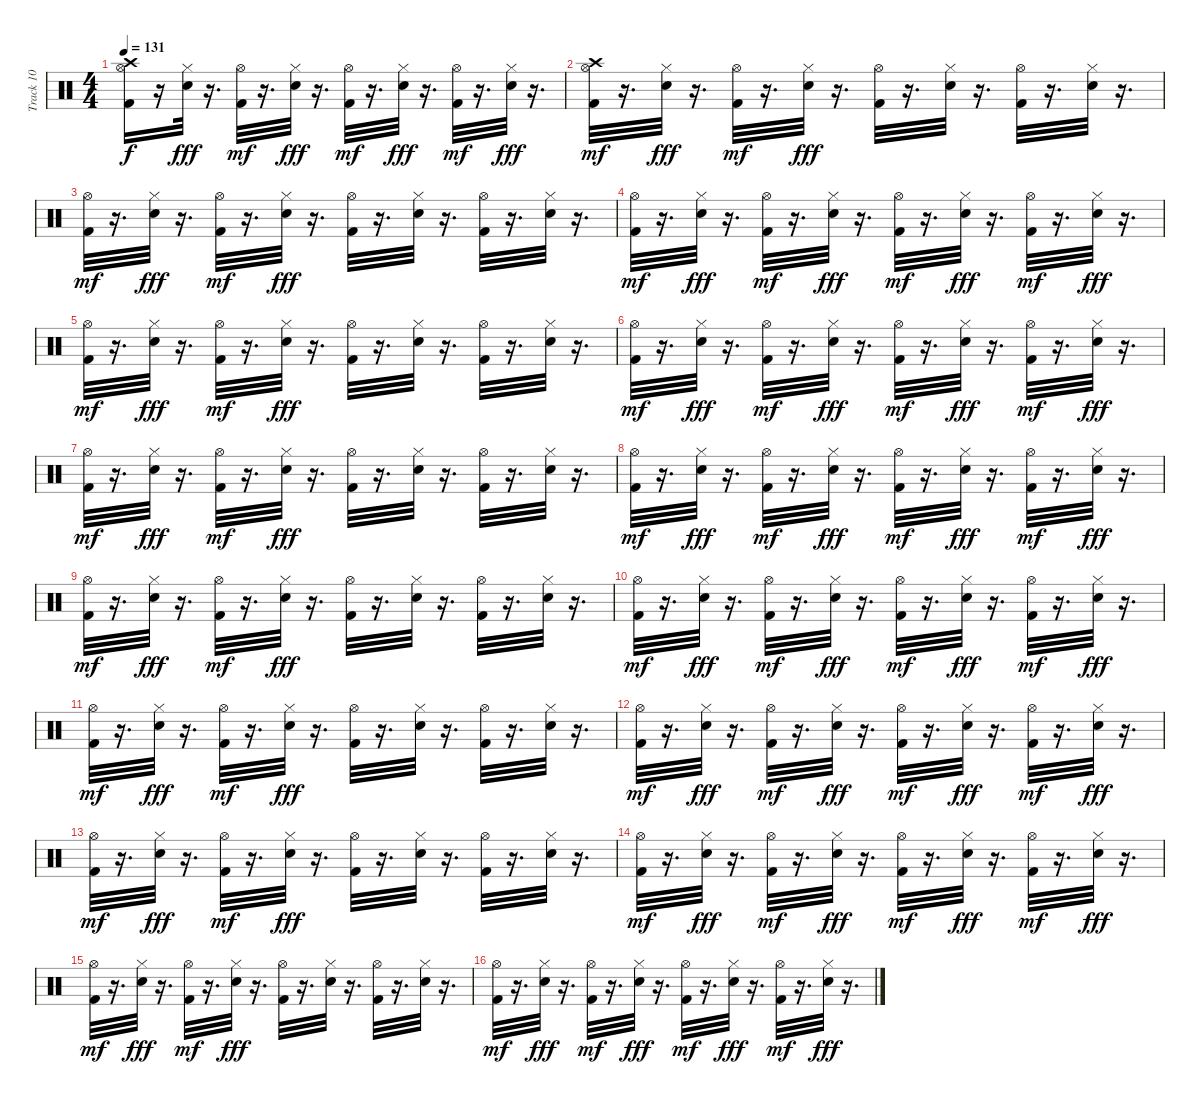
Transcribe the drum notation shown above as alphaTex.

\track ("Track 10" "Track 10") {instrument percussion}
\staff {score}
\articulation defaults
\ts (4 4)
\tempo 131
\clef neutral
\ks c
("Crash high (hit)" "Kick (hit) 2" "Hi-Hat (open)").16{dy f} r.16 ("Snare (hit) 2" "Hi-Hat (closed)").32{dy fff} r.16{d} ("Kick (hit) 2" "Hi-Hat (open)").32{dy mf} r.16{d} ("Snare (hit) 2" "Hi-Hat (closed)").32{dy fff} r.16{d} ("Kick (hit) 2" "Hi-Hat (open)").32{dy mf} r.16{d} ("Snare (hit) 2" "Hi-Hat (closed)").32{dy fff} r.16{d} ("Kick (hit) 2" "Hi-Hat (open)").32{dy mf} r.16{d} ("Snare (hit) 2" "Hi-Hat (closed)").32{dy fff} r.16{d} |
("Crash high (hit)" "Kick (hit) 2" "Hi-Hat (open)").32{dy mf} r.16{d} ("Snare (hit) 2" "Hi-Hat (closed)").32{dy fff} r.16{d} ("Kick (hit) 2" "Hi-Hat (open)").32{dy mf} r.16{d} ("Snare (hit) 2" "Hi-Hat (closed)").32{dy fff} r.16{d} ("Kick (hit) 2" "Hi-Hat (open)").32 r.16{d} ("Snare (hit) 2" "Hi-Hat (closed)").32 r.16{d} ("Kick (hit) 2" "Hi-Hat (open)").32 r.16{d} ("Snare (hit) 2" "Hi-Hat (closed)").32 r.16{d} |
("Kick (hit) 2" "Hi-Hat (open)").32{dy mf} r.16{d} ("Snare (hit) 2" "Hi-Hat (closed)").32{dy fff} r.16{d} ("Kick (hit) 2" "Hi-Hat (open)").32{dy mf} r.16{d} ("Snare (hit) 2" "Hi-Hat (closed)").32{dy fff} r.16{d} ("Kick (hit) 2" "Hi-Hat (open)").32 r.16{d} ("Snare (hit) 2" "Hi-Hat (closed)").32 r.16{d} ("Kick (hit) 2" "Hi-Hat (open)").32 r.16{d} ("Snare (hit) 2" "Hi-Hat (closed)").32 r.16{d} |
("Kick (hit) 2" "Hi-Hat (open)").32{dy mf} r.16{d} ("Snare (hit) 2" "Hi-Hat (closed)").32{dy fff} r.16{d} ("Kick (hit) 2" "Hi-Hat (open)").32{dy mf} r.16{d} ("Snare (hit) 2" "Hi-Hat (closed)").32{dy fff} r.16{d} ("Kick (hit) 2" "Hi-Hat (open)").32{dy mf} r.16{d} ("Snare (hit) 2" "Hi-Hat (closed)").32{dy fff} r.16{d} ("Kick (hit) 2" "Hi-Hat (open)").32{dy mf} r.16{d} ("Snare (hit) 2" "Hi-Hat (closed)").32{dy fff} r.16{d} |
("Kick (hit) 2" "Hi-Hat (open)").32{dy mf} r.16{d} ("Snare (hit) 2" "Hi-Hat (closed)").32{dy fff} r.16{d} ("Kick (hit) 2" "Hi-Hat (open)").32{dy mf} r.16{d} ("Snare (hit) 2" "Hi-Hat (closed)").32{dy fff} r.16{d} ("Kick (hit) 2" "Hi-Hat (open)").32 r.16{d} ("Snare (hit) 2" "Hi-Hat (closed)").32 r.16{d} ("Kick (hit) 2" "Hi-Hat (open)").32 r.16{d} ("Snare (hit) 2" "Hi-Hat (closed)").32 r.16{d} |
("Kick (hit) 2" "Hi-Hat (open)").32{dy mf} r.16{d} ("Snare (hit) 2" "Hi-Hat (closed)").32{dy fff} r.16{d} ("Kick (hit) 2" "Hi-Hat (open)").32{dy mf} r.16{d} ("Snare (hit) 2" "Hi-Hat (closed)").32{dy fff} r.16{d} ("Kick (hit) 2" "Hi-Hat (open)").32{dy mf} r.16{d} ("Snare (hit) 2" "Hi-Hat (closed)").32{dy fff} r.16{d} ("Kick (hit) 2" "Hi-Hat (open)").32{dy mf} r.16{d} ("Snare (hit) 2" "Hi-Hat (closed)").32{dy fff} r.16{d} |
("Kick (hit) 2" "Hi-Hat (open)").32{dy mf} r.16{d} ("Snare (hit) 2" "Hi-Hat (closed)").32{dy fff} r.16{d} ("Kick (hit) 2" "Hi-Hat (open)").32{dy mf} r.16{d} ("Snare (hit) 2" "Hi-Hat (closed)").32{dy fff} r.16{d} ("Kick (hit) 2" "Hi-Hat (open)").32 r.16{d} ("Snare (hit) 2" "Hi-Hat (closed)").32 r.16{d} ("Kick (hit) 2" "Hi-Hat (open)").32 r.16{d} ("Snare (hit) 2" "Hi-Hat (closed)").32 r.16{d} |
("Kick (hit) 2" "Hi-Hat (open)").32{dy mf} r.16{d} ("Snare (hit) 2" "Hi-Hat (closed)").32{dy fff} r.16{d} ("Kick (hit) 2" "Hi-Hat (open)").32{dy mf} r.16{d} ("Snare (hit) 2" "Hi-Hat (closed)").32{dy fff} r.16{d} ("Kick (hit) 2" "Hi-Hat (open)").32{dy mf} r.16{d} ("Snare (hit) 2" "Hi-Hat (closed)").32{dy fff} r.16{d} ("Kick (hit) 2" "Hi-Hat (open)").32{dy mf} r.16{d} ("Snare (hit) 2" "Hi-Hat (closed)").32{dy fff} r.16{d} |
("Kick (hit) 2" "Hi-Hat (open)").32{dy mf} r.16{d} ("Snare (hit) 2" "Hi-Hat (closed)").32{dy fff} r.16{d} ("Kick (hit) 2" "Hi-Hat (open)").32{dy mf} r.16{d} ("Snare (hit) 2" "Hi-Hat (closed)").32{dy fff} r.16{d} ("Kick (hit) 2" "Hi-Hat (open)").32 r.16{d} ("Snare (hit) 2" "Hi-Hat (closed)").32 r.16{d} ("Kick (hit) 2" "Hi-Hat (open)").32 r.16{d} ("Snare (hit) 2" "Hi-Hat (closed)").32 r.16{d} |
("Kick (hit) 2" "Hi-Hat (open)").32{dy mf} r.16{d} ("Snare (hit) 2" "Hi-Hat (closed)").32{dy fff} r.16{d} ("Kick (hit) 2" "Hi-Hat (open)").32{dy mf} r.16{d} ("Snare (hit) 2" "Hi-Hat (closed)").32{dy fff} r.16{d} ("Kick (hit) 2" "Hi-Hat (open)").32{dy mf} r.16{d} ("Snare (hit) 2" "Hi-Hat (closed)").32{dy fff} r.16{d} ("Kick (hit) 2" "Hi-Hat (open)").32{dy mf} r.16{d} ("Snare (hit) 2" "Hi-Hat (closed)").32{dy fff} r.16{d} |
("Kick (hit) 2" "Hi-Hat (open)").32{dy mf} r.16{d} ("Snare (hit) 2" "Hi-Hat (closed)").32{dy fff} r.16{d} ("Kick (hit) 2" "Hi-Hat (open)").32{dy mf} r.16{d} ("Snare (hit) 2" "Hi-Hat (closed)").32{dy fff} r.16{d} ("Kick (hit) 2" "Hi-Hat (open)").32 r.16{d} ("Snare (hit) 2" "Hi-Hat (closed)").32 r.16{d} ("Kick (hit) 2" "Hi-Hat (open)").32 r.16{d} ("Snare (hit) 2" "Hi-Hat (closed)").32 r.16{d} |
("Kick (hit) 2" "Hi-Hat (open)").32{dy mf} r.16{d} ("Snare (hit) 2" "Hi-Hat (closed)").32{dy fff} r.16{d} ("Kick (hit) 2" "Hi-Hat (open)").32{dy mf} r.16{d} ("Snare (hit) 2" "Hi-Hat (closed)").32{dy fff} r.16{d} ("Kick (hit) 2" "Hi-Hat (open)").32{dy mf} r.16{d} ("Snare (hit) 2" "Hi-Hat (closed)").32{dy fff} r.16{d} ("Kick (hit) 2" "Hi-Hat (open)").32{dy mf} r.16{d} ("Snare (hit) 2" "Hi-Hat (closed)").32{dy fff} r.16{d} |
("Kick (hit) 2" "Hi-Hat (open)").32{dy mf} r.16{d} ("Snare (hit) 2" "Hi-Hat (closed)").32{dy fff} r.16{d} ("Kick (hit) 2" "Hi-Hat (open)").32{dy mf} r.16{d} ("Snare (hit) 2" "Hi-Hat (closed)").32{dy fff} r.16{d} ("Kick (hit) 2" "Hi-Hat (open)").32 r.16{d} ("Snare (hit) 2" "Hi-Hat (closed)").32 r.16{d} ("Kick (hit) 2" "Hi-Hat (open)").32 r.16{d} ("Snare (hit) 2" "Hi-Hat (closed)").32 r.16{d} |
("Kick (hit) 2" "Hi-Hat (open)").32{dy mf} r.16{d} ("Snare (hit) 2" "Hi-Hat (closed)").32{dy fff} r.16{d} ("Kick (hit) 2" "Hi-Hat (open)").32{dy mf} r.16{d} ("Snare (hit) 2" "Hi-Hat (closed)").32{dy fff} r.16{d} ("Kick (hit) 2" "Hi-Hat (open)").32{dy mf} r.16{d} ("Snare (hit) 2" "Hi-Hat (closed)").32{dy fff} r.16{d} ("Kick (hit) 2" "Hi-Hat (open)").32{dy mf} r.16{d} ("Snare (hit) 2" "Hi-Hat (closed)").32{dy fff} r.16{d} |
("Kick (hit) 2" "Hi-Hat (open)").32{dy mf} r.16{d} ("Snare (hit) 2" "Hi-Hat (closed)").32{dy fff} r.16{d} ("Kick (hit) 2" "Hi-Hat (open)").32{dy mf} r.16{d} ("Snare (hit) 2" "Hi-Hat (closed)").32{dy fff} r.16{d} ("Kick (hit) 2" "Hi-Hat (open)").32 r.16{d} ("Snare (hit) 2" "Hi-Hat (closed)").32 r.16{d} ("Kick (hit) 2" "Hi-Hat (open)").32 r.16{d} ("Snare (hit) 2" "Hi-Hat (closed)").32 r.16{d} |
("Kick (hit) 2" "Hi-Hat (open)").32{dy mf} r.16{d} ("Snare (hit) 2" "Hi-Hat (closed)").32{dy fff} r.16{d} ("Kick (hit) 2" "Hi-Hat (open)").32{dy mf} r.16{d} ("Snare (hit) 2" "Hi-Hat (closed)").32{dy fff} r.16{d} ("Kick (hit) 2" "Hi-Hat (open)").32{dy mf} r.16{d} ("Snare (hit) 2" "Hi-Hat (closed)").32{dy fff} r.16{d} ("Kick (hit) 2" "Hi-Hat (open)").32{dy mf} r.16{d} ("Snare (hit) 2" "Hi-Hat (closed)").32{dy fff} r.16{d}
